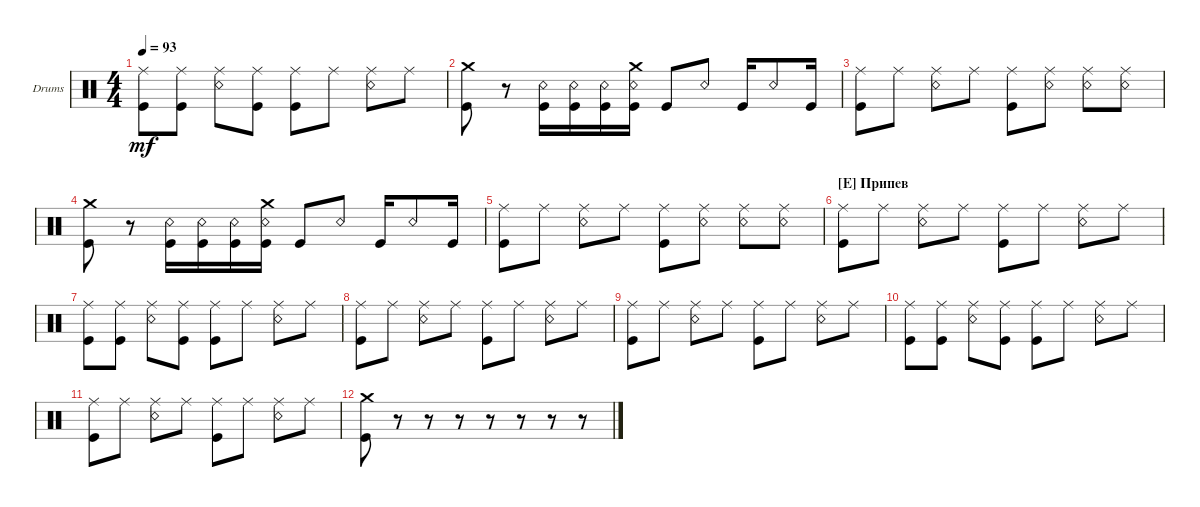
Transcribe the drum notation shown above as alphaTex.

\bracketExtendMode groupsimilarinstruments
\firstSystemTrackNameOrientation horizontal
\otherSystemsTrackNameOrientation horizontal
\track ("Drumkit" "Drums") {instrument percussion}
\staff {score}
\articulation defaults
\ts (4 4)
\tempo 93
\clef neutral
\ks c
("Kick (hit)" "Ride (middle)").8{dy mf} ("Kick (hit)" "Ride (middle)").8 ("Snare (rim shot)" "Ride (middle)").8 ("Kick (hit)" "Ride (middle)").8 ("Ride (middle)" "Kick (hit)").8 "Ride (middle)".8 ("Ride (middle)" "Snare (rim shot)").8 "Ride (middle)".8 |
("Kick (hit)" "Crash medium (hit)").8 r.8 ("Kick (hit)" "Snare (rim shot)").16 ("Kick (hit)" "Snare (rim shot)").16 ("Kick (hit)" "Snare (rim shot)").16 ("Crash medium (hit)" "Snare (rim shot)" "Kick (hit)").16 "Kick (hit)".8 "Snare (rim shot)".8 "Kick (hit)".16 "Snare (rim shot)".8 "Kick (hit)".16 |
("Kick (hit)" "Ride (middle)").8 "Ride (middle)".8 ("Ride (middle)" "Snare (rim shot)").8 "Ride (middle)".8 ("Ride (middle)" "Kick (hit)").8 ("Ride (middle)" "Snare (rim shot)").8 ("Ride (middle)" "Snare (rim shot)").8 ("Ride (middle)" "Snare (rim shot)").8 |
("Kick (hit)" "Crash medium (hit)").8 r.8 ("Kick (hit)" "Snare (rim shot)").16 ("Kick (hit)" "Snare (rim shot)").16 ("Kick (hit)" "Snare (rim shot)").16 ("Crash medium (hit)" "Snare (rim shot)" "Kick (hit)").16 "Kick (hit)".8 "Snare (rim shot)".8 "Kick (hit)".16 "Snare (rim shot)".8 "Kick (hit)".16 |
("Kick (hit)" "Ride (middle)").8 "Ride (middle)".8 ("Ride (middle)" "Snare (rim shot)").8 "Ride (middle)".8 ("Ride (middle)" "Kick (hit)").8 ("Ride (middle)" "Snare (rim shot)").8 ("Ride (middle)" "Snare (rim shot)").8 ("Ride (middle)" "Snare (rim shot)").8 |
\section ("E" "Припев")
("Kick (hit)" "Ride (middle)").8 "Ride (middle)".8 ("Ride (middle)" "Snare (rim shot)").8 "Ride (middle)".8 ("Ride (middle)" "Kick (hit)").8 "Ride (middle)".8 ("Ride (middle)" "Snare (rim shot)").8 "Ride (middle)".8 |
("Kick (hit)" "Ride (middle)").8 ("Kick (hit)" "Ride (middle)").8 ("Snare (rim shot)" "Ride (middle)").8 ("Kick (hit)" "Ride (middle)").8 ("Ride (middle)" "Kick (hit)").8 "Ride (middle)".8 ("Ride (middle)" "Snare (rim shot)").8 "Ride (middle)".8 |
("Kick (hit)" "Ride (middle)").8 "Ride (middle)".8 ("Ride (middle)" "Snare (rim shot)").8 "Ride (middle)".8 ("Ride (middle)" "Kick (hit)").8 "Ride (middle)".8 ("Ride (middle)" "Snare (rim shot)").8 "Ride (middle)".8 |
("Kick (hit)" "Ride (middle)").8 "Ride (middle)".8 ("Ride (middle)" "Snare (rim shot)").8 "Ride (middle)".8 ("Ride (middle)" "Kick (hit)").8 "Ride (middle)".8 ("Ride (middle)" "Snare (rim shot)").8 "Ride (middle)".8 |
("Kick (hit)" "Ride (middle)").8 ("Kick (hit)" "Ride (middle)").8 ("Snare (rim shot)" "Ride (middle)").8 ("Kick (hit)" "Ride (middle)").8 ("Ride (middle)" "Kick (hit)").8 "Ride (middle)".8 ("Ride (middle)" "Snare (rim shot)").8 "Ride (middle)".8 |
("Kick (hit)" "Ride (middle)").8 "Ride (middle)".8 ("Ride (middle)" "Snare (rim shot)").8 "Ride (middle)".8 ("Ride (middle)" "Kick (hit)").8 "Ride (middle)".8 ("Ride (middle)" "Snare (rim shot)").8 "Ride (middle)".8 |
("Kick (hit)" "Crash medium (hit)").8 r.8 r.8 r.8 r.8 r.8 r.8 r.8
